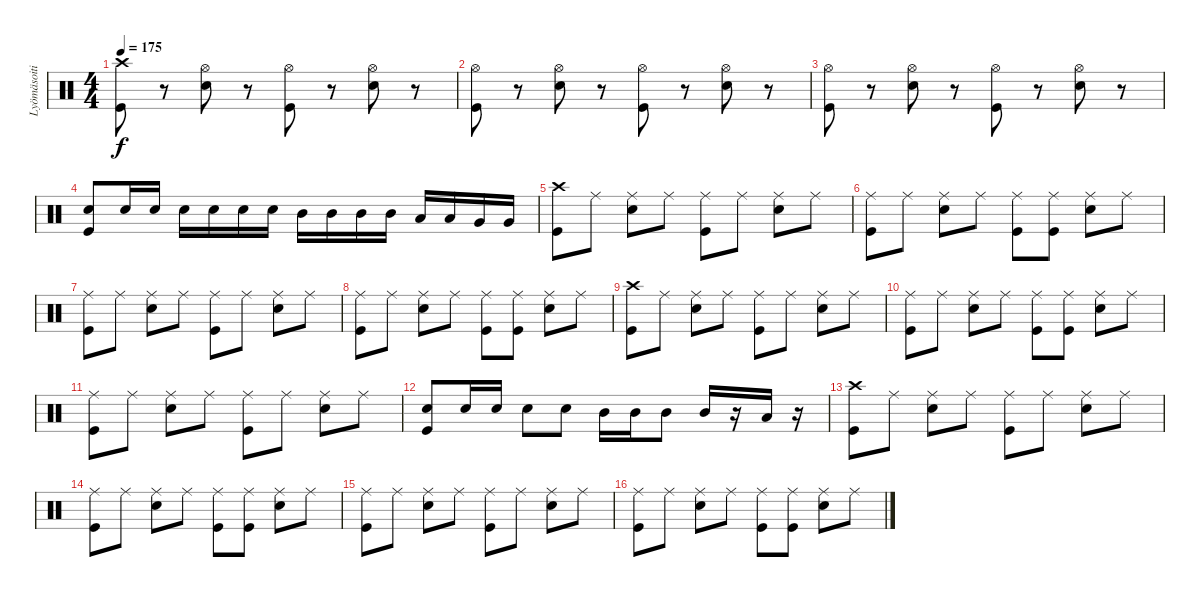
\track ("Lyömäsoitin" "Lyömäsoiti") {instrument percussion}
\staff {score}
\articulation defaults
\ts (4 4)
\tempo 175
\clef neutral
\ks c
("Crash high (hit)" "Kick (hit)").8{dy f} r.8 ("Hi-Hat (open)" "Electric Snare (hit)").8 r.8 ("Hi-Hat (open)" "Kick (hit)").8 r.8 ("Hi-Hat (open)" "Electric Snare (hit)").8 r.8 |
("Hi-Hat (open)" "Kick (hit)").8 r.8 ("Hi-Hat (open)" "Electric Snare (hit)").8 r.8 ("Hi-Hat (open)" "Kick (hit)").8 r.8 ("Hi-Hat (open)" "Electric Snare (hit)").8 r.8 |
("Hi-Hat (open)" "Kick (hit)").8 r.8 ("Hi-Hat (open)" "Electric Snare (hit)").8 r.8 ("Hi-Hat (open)" "Kick (hit)").8 r.8 ("Hi-Hat (open)" "Electric Snare (hit)").8 r.8 |
("Electric Snare (hit)" "Kick (hit)").8 "Electric Snare (hit)".16 "Electric Snare (hit)".16 "Electric Snare (hit)".16 "Electric Snare (hit)".16 "Electric Snare (hit)".16 "Electric Snare (hit)".16 "Mid Tom (hit)".16 "Mid Tom (hit)".16 "Mid Tom (hit)".16 "Mid Tom (hit)".16 "Low Tom (hit)".16 "Low Tom (hit)".16 "Very Low Tom (hit)".16 "Very Low Tom (hit)".16 |
("Crash high (hit)" "Kick (hit)").8 "Ride (middle)".8 ("Ride (middle)" "Electric Snare (hit)").8 "Ride (middle)".8 ("Ride (middle)" "Kick (hit)").8 "Ride (middle)".8 ("Ride (middle)" "Electric Snare (hit)").8 "Ride (middle)".8 |
("Ride (middle)" "Kick (hit)").8 "Ride (middle)".8 ("Ride (middle)" "Electric Snare (hit)").8 "Ride (middle)".8 ("Ride (middle)" "Kick (hit)").8 ("Ride (middle)" "Kick (hit)").8 ("Ride (middle)" "Electric Snare (hit)").8 "Ride (middle)".8 |
("Ride (middle)" "Kick (hit)").8 "Ride (middle)".8 ("Ride (middle)" "Electric Snare (hit)").8 "Ride (middle)".8 ("Ride (middle)" "Kick (hit)").8 "Ride (middle)".8 ("Ride (middle)" "Electric Snare (hit)").8 "Ride (middle)".8 |
("Ride (middle)" "Kick (hit)").8 "Ride (middle)".8 ("Ride (middle)" "Electric Snare (hit)").8 "Ride (middle)".8 ("Ride (middle)" "Kick (hit)").8 ("Ride (middle)" "Kick (hit)").8 ("Ride (middle)" "Electric Snare (hit)").8 "Ride (middle)".8 |
("Crash high (hit)" "Kick (hit)").8 "Ride (middle)".8 ("Ride (middle)" "Electric Snare (hit)").8 "Ride (middle)".8 ("Ride (middle)" "Kick (hit)").8 "Ride (middle)".8 ("Ride (middle)" "Electric Snare (hit)").8 "Ride (middle)".8 |
("Ride (middle)" "Kick (hit)").8 "Ride (middle)".8 ("Ride (middle)" "Electric Snare (hit)").8 "Ride (middle)".8 ("Ride (middle)" "Kick (hit)").8 ("Ride (middle)" "Kick (hit)").8 ("Ride (middle)" "Electric Snare (hit)").8 "Ride (middle)".8 |
("Ride (middle)" "Kick (hit)").8 "Ride (middle)".8 ("Ride (middle)" "Electric Snare (hit)").8 "Ride (middle)".8 ("Ride (middle)" "Kick (hit)").8 "Ride (middle)".8 ("Ride (middle)" "Electric Snare (hit)").8 "Ride (middle)".8 |
("Electric Snare (hit)" "Kick (hit)").8 "Electric Snare (hit)".16 "Electric Snare (hit)".16 "Electric Snare (hit)".8 "Electric Snare (hit)".8 "Mid Tom (hit)".16 "Mid Tom (hit)".16 "Mid Tom (hit)".8 "Mid Tom (hit)".16 r.16 "Low Tom (hit)".16 r.16 |
("Crash high (hit)" "Kick (hit)").8 "Ride (middle)".8 ("Ride (middle)" "Electric Snare (hit)").8 "Ride (middle)".8 ("Ride (middle)" "Kick (hit)").8 "Ride (middle)".8 ("Ride (middle)" "Electric Snare (hit)").8 "Ride (middle)".8 |
("Ride (middle)" "Kick (hit)").8 "Ride (middle)".8 ("Ride (middle)" "Electric Snare (hit)").8 "Ride (middle)".8 ("Ride (middle)" "Kick (hit)").8 ("Ride (middle)" "Kick (hit)").8 ("Ride (middle)" "Electric Snare (hit)").8 "Ride (middle)".8 |
("Ride (middle)" "Kick (hit)").8 "Ride (middle)".8 ("Ride (middle)" "Electric Snare (hit)").8 "Ride (middle)".8 ("Ride (middle)" "Kick (hit)").8 "Ride (middle)".8 ("Ride (middle)" "Electric Snare (hit)").8 "Ride (middle)".8 |
("Ride (middle)" "Kick (hit)").8 "Ride (middle)".8 ("Ride (middle)" "Electric Snare (hit)").8 "Ride (middle)".8 ("Ride (middle)" "Kick (hit)").8 ("Ride (middle)" "Kick (hit)").8 ("Ride (middle)" "Electric Snare (hit)").8 "Ride (middle)".8
